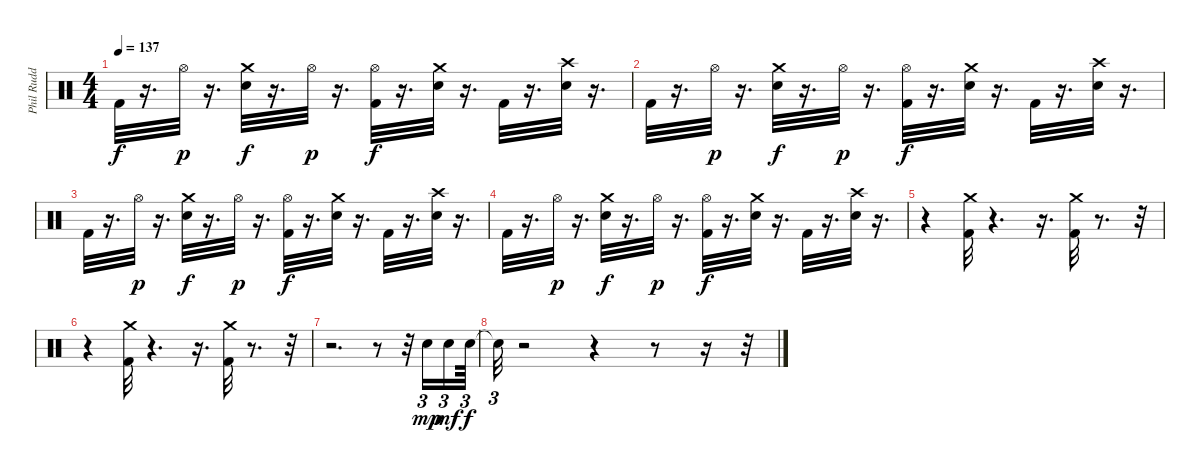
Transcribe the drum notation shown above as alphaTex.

\track ("Phil Rudd" "Phil Rudd") {instrument percussion}
\staff
\articulation defaults
\ts (4 4)
\tempo 137
\clef neutral
\ks c "Kick (hit) 2".32{dy f}
r.16{d} "Hi-Hat (open)".32{dy p} r.16{d} ("Crash medium (hit)" "Electric Snare (hit)").32{dy f} r.16{d} "Hi-Hat (open)".32{dy p} r.16{d} ("Hi-Hat (open)" "Kick (hit) 2").32{dy f} r.16{d} ("Crash medium (hit)" "Electric Snare (hit)").32 r.16{d} "Kick (hit) 2".32 r.16{d} ("Crash high (hit)" "Electric Snare (hit)").32 r.16{d} |
"Kick (hit) 2".32 r.16{d} "Hi-Hat (open)".32{dy p} r.16{d} ("Crash medium (hit)" "Electric Snare (hit)").32{dy f} r.16{d} "Hi-Hat (open)".32{dy p} r.16{d} ("Hi-Hat (open)" "Kick (hit) 2").32{dy f} r.16{d} ("Crash medium (hit)" "Electric Snare (hit)").32 r.16{d} "Kick (hit) 2".32 r.16{d} ("Crash high (hit)" "Electric Snare (hit)").32 r.16{d} |
"Kick (hit) 2".32 r.16{d} "Hi-Hat (open)".32{dy p} r.16{d} ("Crash medium (hit)" "Electric Snare (hit)").32{dy f} r.16{d} "Hi-Hat (open)".32{dy p} r.16{d} ("Hi-Hat (open)" "Kick (hit) 2").32{dy f} r.16{d} ("Crash medium (hit)" "Electric Snare (hit)").32 r.16{d} "Kick (hit) 2".32 r.16{d} ("Crash high (hit)" "Electric Snare (hit)").32 r.16{d} |
"Kick (hit) 2".32 r.16{d} "Hi-Hat (open)".32{dy p} r.16{d} ("Crash medium (hit)" "Electric Snare (hit)").32{dy f} r.16{d} "Hi-Hat (open)".32{dy p} r.16{d} ("Hi-Hat (open)" "Kick (hit) 2").32{dy f} r.16{d} ("Crash medium (hit)" "Electric Snare (hit)").32 r.16{d} "Kick (hit) 2".32 r.16{d} ("Crash high (hit)" "Electric Snare (hit)").32 r.16{d} |
r.4 ("Kick (hit) 2" "Crash medium (hit)").32 r.4{d} r.16{d} ("Crash medium (hit)" "Kick (hit) 2").32 r.8{d} r.32 |
r.4 ("Kick (hit) 2" "Crash medium (hit)").32 r.4{d} r.16{d} ("Kick (hit) 2" "Crash medium (hit)").32 r.8{d} r.32 |
r.2{d} r.8 r.32 "Electric Snare (hit)".16{tu (3 2) dy mp} "Electric Snare (hit)".16{tu (3 2) dy mf} "Electric Snare (hit)".64{tu (3 2) dy f} |
"Snare (hit)"{t}.32{tu (3 2)} r.2 r.4 r.8 r.16 r.32
